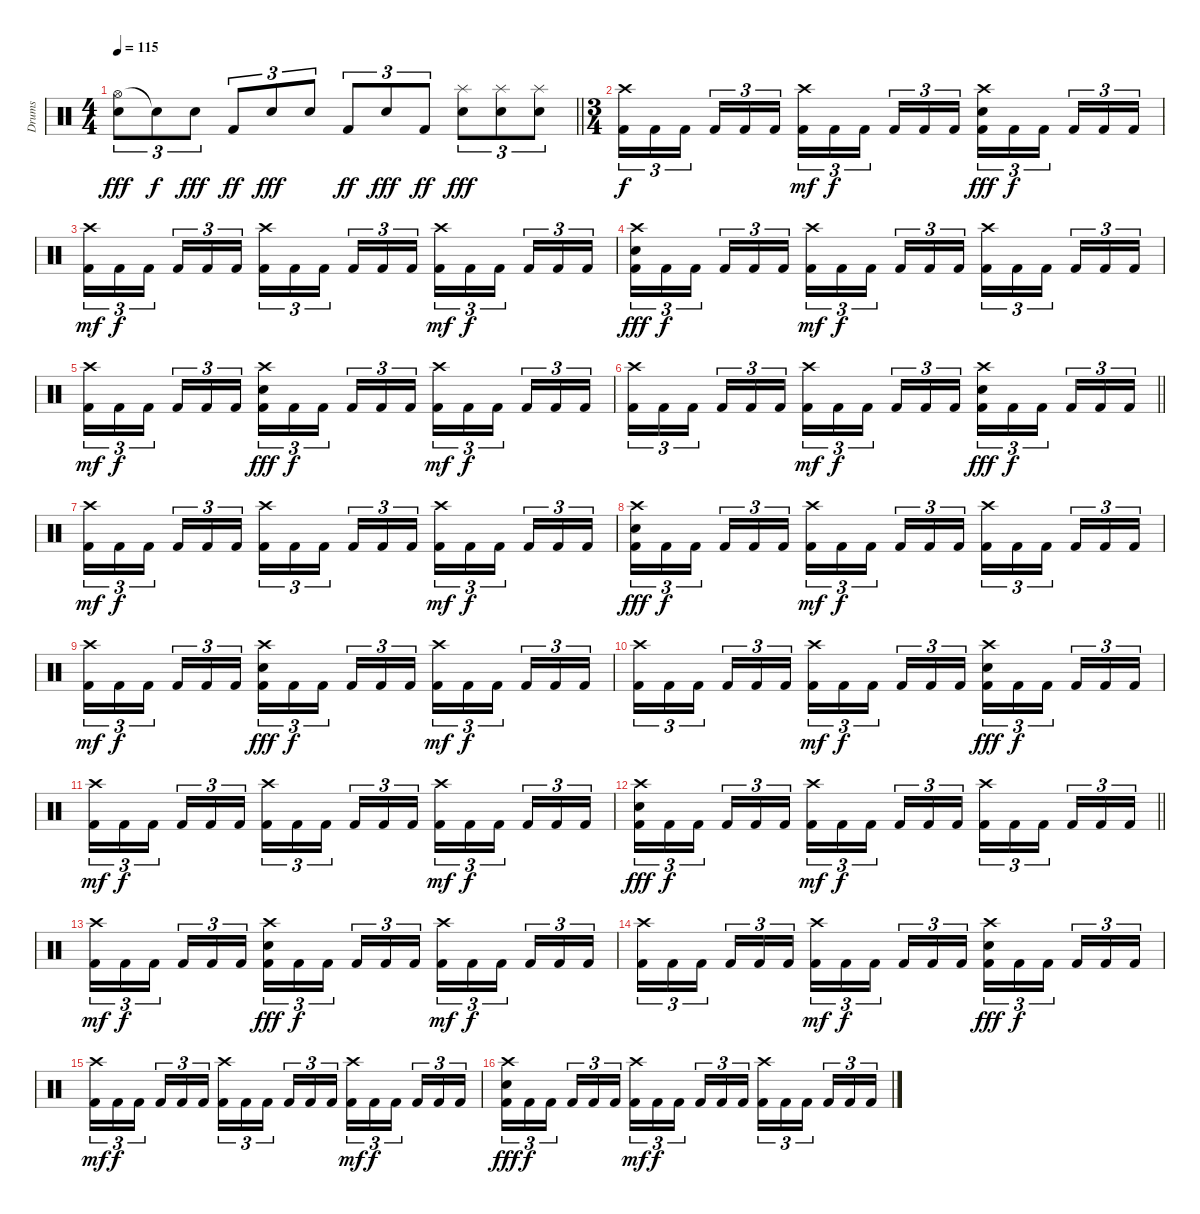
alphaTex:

\track ("Drums" "Drums") {instrument percussion}
\staff {score}
\articulation defaults
\ts (4 4)
\tempo 115
\clef neutral
\barLineRight lightlight
\ks c
("Hi-Hat (open)" "Snare (hit) 2").8{tu (3 2) dy fff} "Snare (hit)"{t}.8{tu (3 2) dy f} "Snare (hit) 2".8{tu (3 2) dy fff} "Kick (hit) 2".8{tu (3 2) dy ff} "Snare (hit) 2".8{tu (3 2) dy fff} "Snare (hit) 2".8{tu (3 2)} "Kick (hit) 2".8{tu (3 2) dy ff} "Snare (hit) 2".8{tu (3 2) dy fff} "Kick (hit) 2".8{tu (3 2) dy ff} ("Splash (hit)" "Snare (hit) 2").8{tu (3 2) dy fff} ("Splash (hit)" "Snare (hit) 2").8{tu (3 2)} ("Splash (hit)" "Snare (hit) 2").8{tu (3 2)} |
\ts (3 4)
\section ("" "")
("Crash high (hit)" "Kick (hit) 2").16{tu (3 2) dy f} "Kick (hit) 2".16{tu (3 2)} "Kick (hit) 2".16{tu (3 2) beam splitsecondary} "Kick (hit) 2".16{tu (3 2)} "Kick (hit) 2".16{tu (3 2)} "Kick (hit) 2".16{tu (3 2)} ("Crash high (hit)" "Kick (hit) 2").16{tu (3 2) dy mf} "Kick (hit) 2".16{tu (3 2) dy f} "Kick (hit) 2".16{tu (3 2) beam splitsecondary} "Kick (hit) 2".16{tu (3 2)} "Kick (hit) 2".16{tu (3 2)} "Kick (hit) 2".16{tu (3 2)} ("Crash high (hit)" "Snare (hit) 2" "Kick (hit) 2").16{tu (3 2) dy fff} "Kick (hit) 2".16{tu (3 2) dy f} "Kick (hit) 2".16{tu (3 2) beam splitsecondary} "Kick (hit) 2".16{tu (3 2)} "Kick (hit) 2".16{tu (3 2)} "Kick (hit) 2".16{tu (3 2)} |
("Crash high (hit)" "Kick (hit) 2").16{tu (3 2) dy mf} "Kick (hit) 2".16{tu (3 2) dy f} "Kick (hit) 2".16{tu (3 2) beam splitsecondary} "Kick (hit) 2".16{tu (3 2)} "Kick (hit) 2".16{tu (3 2)} "Kick (hit) 2".16{tu (3 2)} ("Crash high (hit)" "Kick (hit) 2").16{tu (3 2)} "Kick (hit) 2".16{tu (3 2)} "Kick (hit) 2".16{tu (3 2) beam splitsecondary} "Kick (hit) 2".16{tu (3 2)} "Kick (hit) 2".16{tu (3 2)} "Kick (hit) 2".16{tu (3 2)} ("Crash high (hit)" "Kick (hit) 2").16{tu (3 2) dy mf} "Kick (hit) 2".16{tu (3 2) dy f} "Kick (hit) 2".16{tu (3 2) beam splitsecondary} "Kick (hit) 2".16{tu (3 2)} "Kick (hit) 2".16{tu (3 2)} "Kick (hit) 2".16{tu (3 2)} |
("Crash high (hit)" "Snare (hit) 2" "Kick (hit) 2").16{tu (3 2) dy fff} "Kick (hit) 2".16{tu (3 2) dy f} "Kick (hit) 2".16{tu (3 2) beam splitsecondary} "Kick (hit) 2".16{tu (3 2)} "Kick (hit) 2".16{tu (3 2)} "Kick (hit) 2".16{tu (3 2)} ("Crash high (hit)" "Kick (hit) 2").16{tu (3 2) dy mf} "Kick (hit) 2".16{tu (3 2) dy f} "Kick (hit) 2".16{tu (3 2) beam splitsecondary} "Kick (hit) 2".16{tu (3 2)} "Kick (hit) 2".16{tu (3 2)} "Kick (hit) 2".16{tu (3 2)} ("Crash high (hit)" "Kick (hit) 2").16{tu (3 2)} "Kick (hit) 2".16{tu (3 2)} "Kick (hit) 2".16{tu (3 2) beam splitsecondary} "Kick (hit) 2".16{tu (3 2)} "Kick (hit) 2".16{tu (3 2)} "Kick (hit) 2".16{tu (3 2)} |
("Crash high (hit)" "Kick (hit) 2").16{tu (3 2) dy mf} "Kick (hit) 2".16{tu (3 2) dy f} "Kick (hit) 2".16{tu (3 2) beam splitsecondary} "Kick (hit) 2".16{tu (3 2)} "Kick (hit) 2".16{tu (3 2)} "Kick (hit) 2".16{tu (3 2)} ("Crash high (hit)" "Snare (hit) 2" "Kick (hit) 2").16{tu (3 2) dy fff} "Kick (hit) 2".16{tu (3 2) dy f} "Kick (hit) 2".16{tu (3 2) beam splitsecondary} "Kick (hit) 2".16{tu (3 2)} "Kick (hit) 2".16{tu (3 2)} "Kick (hit) 2".16{tu (3 2)} ("Crash high (hit)" "Kick (hit) 2").16{tu (3 2) dy mf} "Kick (hit) 2".16{tu (3 2) dy f} "Kick (hit) 2".16{tu (3 2) beam splitsecondary} "Kick (hit) 2".16{tu (3 2)} "Kick (hit) 2".16{tu (3 2)} "Kick (hit) 2".16{tu (3 2)} |
\barLineRight lightlight
("Crash high (hit)" "Kick (hit) 2").16{tu (3 2)} "Kick (hit) 2".16{tu (3 2)} "Kick (hit) 2".16{tu (3 2) beam splitsecondary} "Kick (hit) 2".16{tu (3 2)} "Kick (hit) 2".16{tu (3 2)} "Kick (hit) 2".16{tu (3 2)} ("Crash high (hit)" "Kick (hit) 2").16{tu (3 2) dy mf} "Kick (hit) 2".16{tu (3 2) dy f} "Kick (hit) 2".16{tu (3 2) beam splitsecondary} "Kick (hit) 2".16{tu (3 2)} "Kick (hit) 2".16{tu (3 2)} "Kick (hit) 2".16{tu (3 2)} ("Crash high (hit)" "Snare (hit) 2" "Kick (hit) 2").16{tu (3 2) dy fff} "Kick (hit) 2".16{tu (3 2) dy f} "Kick (hit) 2".16{tu (3 2) beam splitsecondary} "Kick (hit) 2".16{tu (3 2)} "Kick (hit) 2".16{tu (3 2)} "Kick (hit) 2".16{tu (3 2)} |
("Crash high (hit)" "Kick (hit) 2").16{tu (3 2) dy mf} "Kick (hit) 2".16{tu (3 2) dy f} "Kick (hit) 2".16{tu (3 2) beam splitsecondary} "Kick (hit) 2".16{tu (3 2)} "Kick (hit) 2".16{tu (3 2)} "Kick (hit) 2".16{tu (3 2)} ("Crash high (hit)" "Kick (hit) 2").16{tu (3 2)} "Kick (hit) 2".16{tu (3 2)} "Kick (hit) 2".16{tu (3 2) beam splitsecondary} "Kick (hit) 2".16{tu (3 2)} "Kick (hit) 2".16{tu (3 2)} "Kick (hit) 2".16{tu (3 2)} ("Crash high (hit)" "Kick (hit) 2").16{tu (3 2) dy mf} "Kick (hit) 2".16{tu (3 2) dy f} "Kick (hit) 2".16{tu (3 2) beam splitsecondary} "Kick (hit) 2".16{tu (3 2)} "Kick (hit) 2".16{tu (3 2)} "Kick (hit) 2".16{tu (3 2)} |
("Crash high (hit)" "Snare (hit) 2" "Kick (hit) 2").16{tu (3 2) dy fff} "Kick (hit) 2".16{tu (3 2) dy f} "Kick (hit) 2".16{tu (3 2) beam splitsecondary} "Kick (hit) 2".16{tu (3 2)} "Kick (hit) 2".16{tu (3 2)} "Kick (hit) 2".16{tu (3 2)} ("Crash high (hit)" "Kick (hit) 2").16{tu (3 2) dy mf} "Kick (hit) 2".16{tu (3 2) dy f} "Kick (hit) 2".16{tu (3 2) beam splitsecondary} "Kick (hit) 2".16{tu (3 2)} "Kick (hit) 2".16{tu (3 2)} "Kick (hit) 2".16{tu (3 2)} ("Crash high (hit)" "Kick (hit) 2").16{tu (3 2)} "Kick (hit) 2".16{tu (3 2)} "Kick (hit) 2".16{tu (3 2) beam splitsecondary} "Kick (hit) 2".16{tu (3 2)} "Kick (hit) 2".16{tu (3 2)} "Kick (hit) 2".16{tu (3 2)} |
("Crash high (hit)" "Kick (hit) 2").16{tu (3 2) dy mf} "Kick (hit) 2".16{tu (3 2) dy f} "Kick (hit) 2".16{tu (3 2) beam splitsecondary} "Kick (hit) 2".16{tu (3 2)} "Kick (hit) 2".16{tu (3 2)} "Kick (hit) 2".16{tu (3 2)} ("Crash high (hit)" "Snare (hit) 2" "Kick (hit) 2").16{tu (3 2) dy fff} "Kick (hit) 2".16{tu (3 2) dy f} "Kick (hit) 2".16{tu (3 2) beam splitsecondary} "Kick (hit) 2".16{tu (3 2)} "Kick (hit) 2".16{tu (3 2)} "Kick (hit) 2".16{tu (3 2)} ("Crash high (hit)" "Kick (hit) 2").16{tu (3 2) dy mf} "Kick (hit) 2".16{tu (3 2) dy f} "Kick (hit) 2".16{tu (3 2) beam splitsecondary} "Kick (hit) 2".16{tu (3 2)} "Kick (hit) 2".16{tu (3 2)} "Kick (hit) 2".16{tu (3 2)} |
("Crash high (hit)" "Kick (hit) 2").16{tu (3 2)} "Kick (hit) 2".16{tu (3 2)} "Kick (hit) 2".16{tu (3 2) beam splitsecondary} "Kick (hit) 2".16{tu (3 2)} "Kick (hit) 2".16{tu (3 2)} "Kick (hit) 2".16{tu (3 2)} ("Crash high (hit)" "Kick (hit) 2").16{tu (3 2) dy mf} "Kick (hit) 2".16{tu (3 2) dy f} "Kick (hit) 2".16{tu (3 2) beam splitsecondary} "Kick (hit) 2".16{tu (3 2)} "Kick (hit) 2".16{tu (3 2)} "Kick (hit) 2".16{tu (3 2)} ("Crash high (hit)" "Snare (hit) 2" "Kick (hit) 2").16{tu (3 2) dy fff} "Kick (hit) 2".16{tu (3 2) dy f} "Kick (hit) 2".16{tu (3 2) beam splitsecondary} "Kick (hit) 2".16{tu (3 2)} "Kick (hit) 2".16{tu (3 2)} "Kick (hit) 2".16{tu (3 2)} |
("Crash high (hit)" "Kick (hit) 2").16{tu (3 2) dy mf} "Kick (hit) 2".16{tu (3 2) dy f} "Kick (hit) 2".16{tu (3 2) beam splitsecondary} "Kick (hit) 2".16{tu (3 2)} "Kick (hit) 2".16{tu (3 2)} "Kick (hit) 2".16{tu (3 2)} ("Crash high (hit)" "Kick (hit) 2").16{tu (3 2)} "Kick (hit) 2".16{tu (3 2)} "Kick (hit) 2".16{tu (3 2) beam splitsecondary} "Kick (hit) 2".16{tu (3 2)} "Kick (hit) 2".16{tu (3 2)} "Kick (hit) 2".16{tu (3 2)} ("Crash high (hit)" "Kick (hit) 2").16{tu (3 2) dy mf} "Kick (hit) 2".16{tu (3 2) dy f} "Kick (hit) 2".16{tu (3 2) beam splitsecondary} "Kick (hit) 2".16{tu (3 2)} "Kick (hit) 2".16{tu (3 2)} "Kick (hit) 2".16{tu (3 2)} |
\barLineRight lightlight
("Crash high (hit)" "Snare (hit) 2" "Kick (hit) 2").16{tu (3 2) dy fff} "Kick (hit) 2".16{tu (3 2) dy f} "Kick (hit) 2".16{tu (3 2) beam splitsecondary} "Kick (hit) 2".16{tu (3 2)} "Kick (hit) 2".16{tu (3 2)} "Kick (hit) 2".16{tu (3 2)} ("Crash high (hit)" "Kick (hit) 2").16{tu (3 2) dy mf} "Kick (hit) 2".16{tu (3 2) dy f} "Kick (hit) 2".16{tu (3 2) beam splitsecondary} "Kick (hit) 2".16{tu (3 2)} "Kick (hit) 2".16{tu (3 2)} "Kick (hit) 2".16{tu (3 2)} ("Crash high (hit)" "Kick (hit) 2").16{tu (3 2)} "Kick (hit) 2".16{tu (3 2)} "Kick (hit) 2".16{tu (3 2) beam splitsecondary} "Kick (hit) 2".16{tu (3 2)} "Kick (hit) 2".16{tu (3 2)} "Kick (hit) 2".16{tu (3 2)} |
("Crash high (hit)" "Kick (hit) 2").16{tu (3 2) dy mf} "Kick (hit) 2".16{tu (3 2) dy f} "Kick (hit) 2".16{tu (3 2) beam splitsecondary} "Kick (hit) 2".16{tu (3 2)} "Kick (hit) 2".16{tu (3 2)} "Kick (hit) 2".16{tu (3 2)} ("Crash high (hit)" "Snare (hit) 2" "Kick (hit) 2").16{tu (3 2) dy fff} "Kick (hit) 2".16{tu (3 2) dy f} "Kick (hit) 2".16{tu (3 2) beam splitsecondary} "Kick (hit) 2".16{tu (3 2)} "Kick (hit) 2".16{tu (3 2)} "Kick (hit) 2".16{tu (3 2)} ("Crash high (hit)" "Kick (hit) 2").16{tu (3 2) dy mf} "Kick (hit) 2".16{tu (3 2) dy f} "Kick (hit) 2".16{tu (3 2) beam splitsecondary} "Kick (hit) 2".16{tu (3 2)} "Kick (hit) 2".16{tu (3 2)} "Kick (hit) 2".16{tu (3 2)} |
("Crash high (hit)" "Kick (hit) 2").16{tu (3 2)} "Kick (hit) 2".16{tu (3 2)} "Kick (hit) 2".16{tu (3 2) beam splitsecondary} "Kick (hit) 2".16{tu (3 2)} "Kick (hit) 2".16{tu (3 2)} "Kick (hit) 2".16{tu (3 2)} ("Crash high (hit)" "Kick (hit) 2").16{tu (3 2) dy mf} "Kick (hit) 2".16{tu (3 2) dy f} "Kick (hit) 2".16{tu (3 2) beam splitsecondary} "Kick (hit) 2".16{tu (3 2)} "Kick (hit) 2".16{tu (3 2)} "Kick (hit) 2".16{tu (3 2)} ("Crash high (hit)" "Snare (hit) 2" "Kick (hit) 2").16{tu (3 2) dy fff} "Kick (hit) 2".16{tu (3 2) dy f} "Kick (hit) 2".16{tu (3 2) beam splitsecondary} "Kick (hit) 2".16{tu (3 2)} "Kick (hit) 2".16{tu (3 2)} "Kick (hit) 2".16{tu (3 2)} |
("Crash high (hit)" "Kick (hit) 2").16{tu (3 2) dy mf} "Kick (hit) 2".16{tu (3 2) dy f} "Kick (hit) 2".16{tu (3 2) beam splitsecondary} "Kick (hit) 2".16{tu (3 2)} "Kick (hit) 2".16{tu (3 2)} "Kick (hit) 2".16{tu (3 2)} ("Crash high (hit)" "Kick (hit) 2").16{tu (3 2)} "Kick (hit) 2".16{tu (3 2)} "Kick (hit) 2".16{tu (3 2) beam splitsecondary} "Kick (hit) 2".16{tu (3 2)} "Kick (hit) 2".16{tu (3 2)} "Kick (hit) 2".16{tu (3 2)} ("Crash high (hit)" "Kick (hit) 2").16{tu (3 2) dy mf} "Kick (hit) 2".16{tu (3 2) dy f} "Kick (hit) 2".16{tu (3 2) beam splitsecondary} "Kick (hit) 2".16{tu (3 2)} "Kick (hit) 2".16{tu (3 2)} "Kick (hit) 2".16{tu (3 2)} |
("Crash high (hit)" "Snare (hit) 2" "Kick (hit) 2").16{tu (3 2) dy fff} "Kick (hit) 2".16{tu (3 2) dy f} "Kick (hit) 2".16{tu (3 2) beam splitsecondary} "Kick (hit) 2".16{tu (3 2)} "Kick (hit) 2".16{tu (3 2)} "Kick (hit) 2".16{tu (3 2)} ("Crash high (hit)" "Kick (hit) 2").16{tu (3 2) dy mf} "Kick (hit) 2".16{tu (3 2) dy f} "Kick (hit) 2".16{tu (3 2) beam splitsecondary} "Kick (hit) 2".16{tu (3 2)} "Kick (hit) 2".16{tu (3 2)} "Kick (hit) 2".16{tu (3 2)} ("Crash high (hit)" "Kick (hit) 2").16{tu (3 2)} "Kick (hit) 2".16{tu (3 2)} "Kick (hit) 2".16{tu (3 2) beam splitsecondary} "Kick (hit) 2".16{tu (3 2)} "Kick (hit) 2".16{tu (3 2)} "Kick (hit) 2".16{tu (3 2)}
